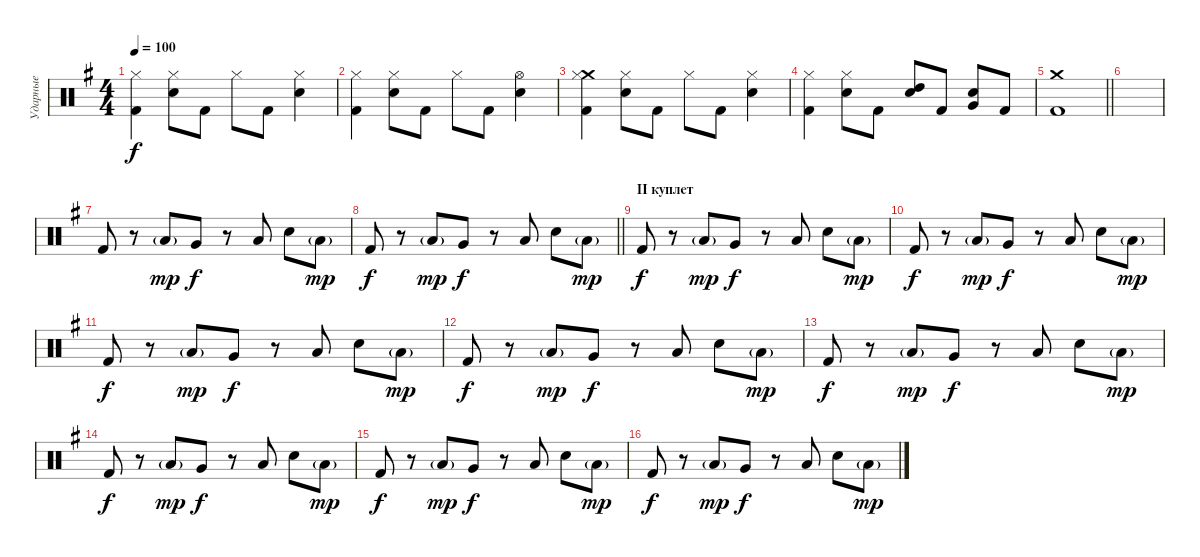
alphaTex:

\track ("Ударные" "Ударные") {instrument percussion}
\staff {score}
\articulation defaults
\ts (4 4)
\tempo 100
\clef neutral
\ks eminor
("Hi-Hat (closed)" "Kick (hit) 2").4{dy f} ("Hi-Hat (closed)" "Electric Snare (hit)").8 "Kick (hit) 2".8 "Hi-Hat (closed)".8 "Kick (hit) 2".8 ("Hi-Hat (closed)" "Electric Snare (hit)").4 |
("Hi-Hat (closed)" "Kick (hit) 2").4 ("Hi-Hat (closed)" "Electric Snare (hit)").8 "Kick (hit) 2".8 "Hi-Hat (closed)".8 "Kick (hit) 2".8 ("Hi-Hat (open)" "Electric Snare (hit)").4 |
("Crash medium (hit)" "Hi-Hat (closed)" "Kick (hit) 2").4 ("Hi-Hat (closed)" "Electric Snare (hit)").8 "Kick (hit) 2".8 "Hi-Hat (closed)".8 "Kick (hit) 2".8 ("Hi-Hat (closed)" "Electric Snare (hit)").4 |
("Hi-Hat (closed)" "Kick (hit) 2").4 ("Hi-Hat (closed)" "Electric Snare (hit)").8 "Kick (hit) 2".8 ("High Tom (hit)" "Electric Snare (hit)").8 "Kick (hit) 2".8 ("Very Low Tom (hit)" "Electric Snare (hit)").8 "Kick (hit) 2".8 |
\barLineRight lightlight
("Crash medium (hit)" "Kick (hit) 2").1 |
\section ("" "")
|
"Kick (hit) 2".8 r.8 "Low Tom (hit)"{g}.8{dy mp} "Very Low Tom (hit)".8{dy f} r.8 "Low Floor Tom (hit)".8 "Electric Snare (hit)".8 "Low Floor Tom (hit)"{g}.8{dy mp} |
\barLineRight lightlight "Kick (hit) 2".8{dy f}
r.8 "Low Tom (hit)"{g}.8{dy mp} "Very Low Tom (hit)".8{dy f} r.8 "Low Floor Tom (hit)".8 "Electric Snare (hit)".8 "Low Floor Tom (hit)"{g}.8{dy mp} |
\section ("" "II куплет")
"Kick (hit) 2".8{dy f} r.8 "Low Tom (hit)"{g}.8{dy mp} "Very Low Tom (hit)".8{dy f} r.8 "Low Floor Tom (hit)".8 "Electric Snare (hit)".8 "Low Floor Tom (hit)"{g}.8{dy mp} |
"Kick (hit) 2".8{dy f} r.8 "Low Tom (hit)"{g}.8{dy mp} "Very Low Tom (hit)".8{dy f} r.8 "Low Floor Tom (hit)".8 "Electric Snare (hit)".8 "Low Floor Tom (hit)"{g}.8{dy mp} |
"Kick (hit) 2".8{dy f} r.8 "Low Tom (hit)"{g}.8{dy mp} "Very Low Tom (hit)".8{dy f} r.8 "Low Floor Tom (hit)".8 "Electric Snare (hit)".8 "Low Floor Tom (hit)"{g}.8{dy mp} |
"Kick (hit) 2".8{dy f} r.8 "Low Tom (hit)"{g}.8{dy mp} "Very Low Tom (hit)".8{dy f} r.8 "Low Floor Tom (hit)".8 "Electric Snare (hit)".8 "Low Floor Tom (hit)"{g}.8{dy mp} |
"Kick (hit) 2".8{dy f} r.8 "Low Tom (hit)"{g}.8{dy mp} "Very Low Tom (hit)".8{dy f} r.8 "Low Floor Tom (hit)".8 "Electric Snare (hit)".8 "Low Floor Tom (hit)"{g}.8{dy mp} |
"Kick (hit) 2".8{dy f} r.8 "Low Tom (hit)"{g}.8{dy mp} "Very Low Tom (hit)".8{dy f} r.8 "Low Floor Tom (hit)".8 "Electric Snare (hit)".8 "Low Floor Tom (hit)"{g}.8{dy mp} |
"Kick (hit) 2".8{dy f} r.8 "Low Tom (hit)"{g}.8{dy mp} "Very Low Tom (hit)".8{dy f} r.8 "Low Floor Tom (hit)".8 "Electric Snare (hit)".8 "Low Floor Tom (hit)"{g}.8{dy mp} |
"Kick (hit) 2".8{dy f} r.8 "Low Tom (hit)"{g}.8{dy mp} "Very Low Tom (hit)".8{dy f} r.8 "Low Floor Tom (hit)".8 "Electric Snare (hit)".8 "Low Floor Tom (hit)"{g}.8{dy mp}
